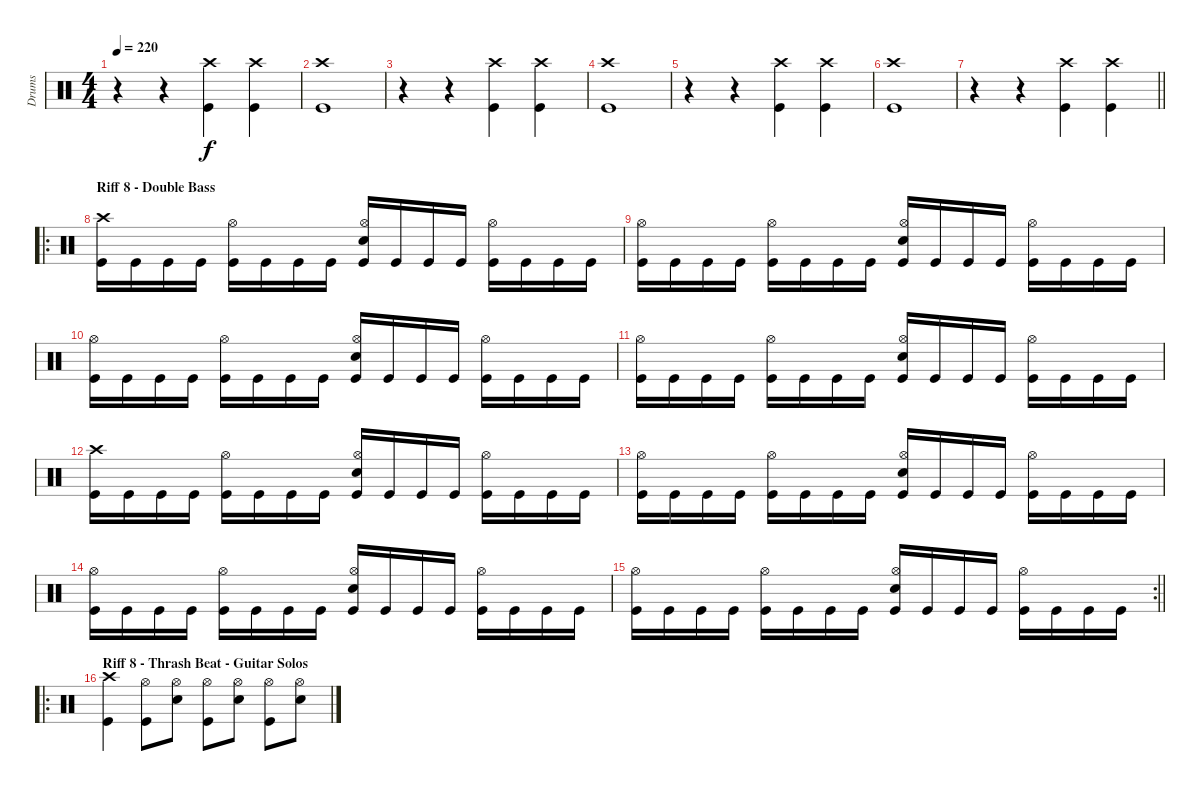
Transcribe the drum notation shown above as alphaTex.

\track ("Drums" "Drums") {instrument percussion}
\staff {score}
\articulation defaults
\ts (4 4)
\tempo 220
\clef neutral
\ks c
r.4{dy f} r.4 ("Crash high (hit)" "Kick (hit)").4 ("Crash high (hit)" "Kick (hit)").4 |
("Crash high (hit)" "Kick (hit)").1 |
r.4 r.4 ("Crash high (hit)" "Kick (hit)").4 ("Crash high (hit)" "Kick (hit)").4 |
("Crash high (hit)" "Kick (hit)").1 |
r.4 r.4 ("Crash high (hit)" "Kick (hit)").4 ("Crash high (hit)" "Kick (hit)").4 |
("Crash high (hit)" "Kick (hit)").1 |
\barLineRight lightlight
r.4 r.4 ("Crash high (hit)" "Kick (hit)").4 ("Crash high (hit)" "Kick (hit)").4 |
\ro
\section ("" "Riff 8 - Double Bass")
("Crash high (hit)" "Kick (hit)").16 "Kick (hit)".16 "Kick (hit)".16 "Kick (hit)".16 ("Hi-Hat (open)" "Kick (hit)").16 "Kick (hit)".16 "Kick (hit)".16 "Kick (hit)".16 ("Hi-Hat (open)" "Electric Snare (hit)" "Kick (hit)").16 "Kick (hit)".16 "Kick (hit)".16 "Kick (hit)".16 ("Hi-Hat (open)" "Kick (hit)").16 "Kick (hit)".16 "Kick (hit)".16 "Kick (hit)".16 |
("Hi-Hat (open)" "Kick (hit)").16 "Kick (hit)".16 "Kick (hit)".16 "Kick (hit)".16 ("Hi-Hat (open)" "Kick (hit)").16 "Kick (hit)".16 "Kick (hit)".16 "Kick (hit)".16 ("Hi-Hat (open)" "Electric Snare (hit)" "Kick (hit)").16 "Kick (hit)".16 "Kick (hit)".16 "Kick (hit)".16 ("Hi-Hat (open)" "Kick (hit)").16 "Kick (hit)".16 "Kick (hit)".16 "Kick (hit)".16 |
("Hi-Hat (open)" "Kick (hit)").16 "Kick (hit)".16 "Kick (hit)".16 "Kick (hit)".16 ("Hi-Hat (open)" "Kick (hit)").16 "Kick (hit)".16 "Kick (hit)".16 "Kick (hit)".16 ("Hi-Hat (open)" "Electric Snare (hit)" "Kick (hit)").16 "Kick (hit)".16 "Kick (hit)".16 "Kick (hit)".16 ("Hi-Hat (open)" "Kick (hit)").16 "Kick (hit)".16 "Kick (hit)".16 "Kick (hit)".16 |
("Hi-Hat (open)" "Kick (hit)").16 "Kick (hit)".16 "Kick (hit)".16 "Kick (hit)".16 ("Hi-Hat (open)" "Kick (hit)").16 "Kick (hit)".16 "Kick (hit)".16 "Kick (hit)".16 ("Hi-Hat (open)" "Electric Snare (hit)" "Kick (hit)").16 "Kick (hit)".16 "Kick (hit)".16 "Kick (hit)".16 ("Hi-Hat (open)" "Kick (hit)").16 "Kick (hit)".16 "Kick (hit)".16 "Kick (hit)".16 |
("Crash high (hit)" "Kick (hit)").16 "Kick (hit)".16 "Kick (hit)".16 "Kick (hit)".16 ("Hi-Hat (open)" "Kick (hit)").16 "Kick (hit)".16 "Kick (hit)".16 "Kick (hit)".16 ("Hi-Hat (open)" "Electric Snare (hit)" "Kick (hit)").16 "Kick (hit)".16 "Kick (hit)".16 "Kick (hit)".16 ("Hi-Hat (open)" "Kick (hit)").16 "Kick (hit)".16 "Kick (hit)".16 "Kick (hit)".16 |
("Hi-Hat (open)" "Kick (hit)").16 "Kick (hit)".16 "Kick (hit)".16 "Kick (hit)".16 ("Hi-Hat (open)" "Kick (hit)").16 "Kick (hit)".16 "Kick (hit)".16 "Kick (hit)".16 ("Hi-Hat (open)" "Electric Snare (hit)" "Kick (hit)").16 "Kick (hit)".16 "Kick (hit)".16 "Kick (hit)".16 ("Hi-Hat (open)" "Kick (hit)").16 "Kick (hit)".16 "Kick (hit)".16 "Kick (hit)".16 |
("Hi-Hat (open)" "Kick (hit)").16 "Kick (hit)".16 "Kick (hit)".16 "Kick (hit)".16 ("Hi-Hat (open)" "Kick (hit)").16 "Kick (hit)".16 "Kick (hit)".16 "Kick (hit)".16 ("Hi-Hat (open)" "Electric Snare (hit)" "Kick (hit)").16 "Kick (hit)".16 "Kick (hit)".16 "Kick (hit)".16 ("Hi-Hat (open)" "Kick (hit)").16 "Kick (hit)".16 "Kick (hit)".16 "Kick (hit)".16 |
\rc 2
\barLineRight lightlight
("Hi-Hat (open)" "Kick (hit)").16 "Kick (hit)".16 "Kick (hit)".16 "Kick (hit)".16 ("Hi-Hat (open)" "Kick (hit)").16 "Kick (hit)".16 "Kick (hit)".16 "Kick (hit)".16 ("Hi-Hat (open)" "Electric Snare (hit)" "Kick (hit)").16 "Kick (hit)".16 "Kick (hit)".16 "Kick (hit)".16 ("Hi-Hat (open)" "Kick (hit)").16 "Kick (hit)".16 "Kick (hit)".16 "Kick (hit)".16 |
\ro
\section ("" "Riff 8 - Thrash Beat - Guitar Solos")
("Crash high (hit)" "Kick (hit)").4 ("Hi-Hat (open)" "Kick (hit)").8 ("Hi-Hat (open)" "Electric Snare (hit)").8 ("Hi-Hat (open)" "Kick (hit)").8 ("Hi-Hat (open)" "Electric Snare (hit)").8 ("Hi-Hat (open)" "Kick (hit)").8 ("Hi-Hat (open)" "Electric Snare (hit)").8
